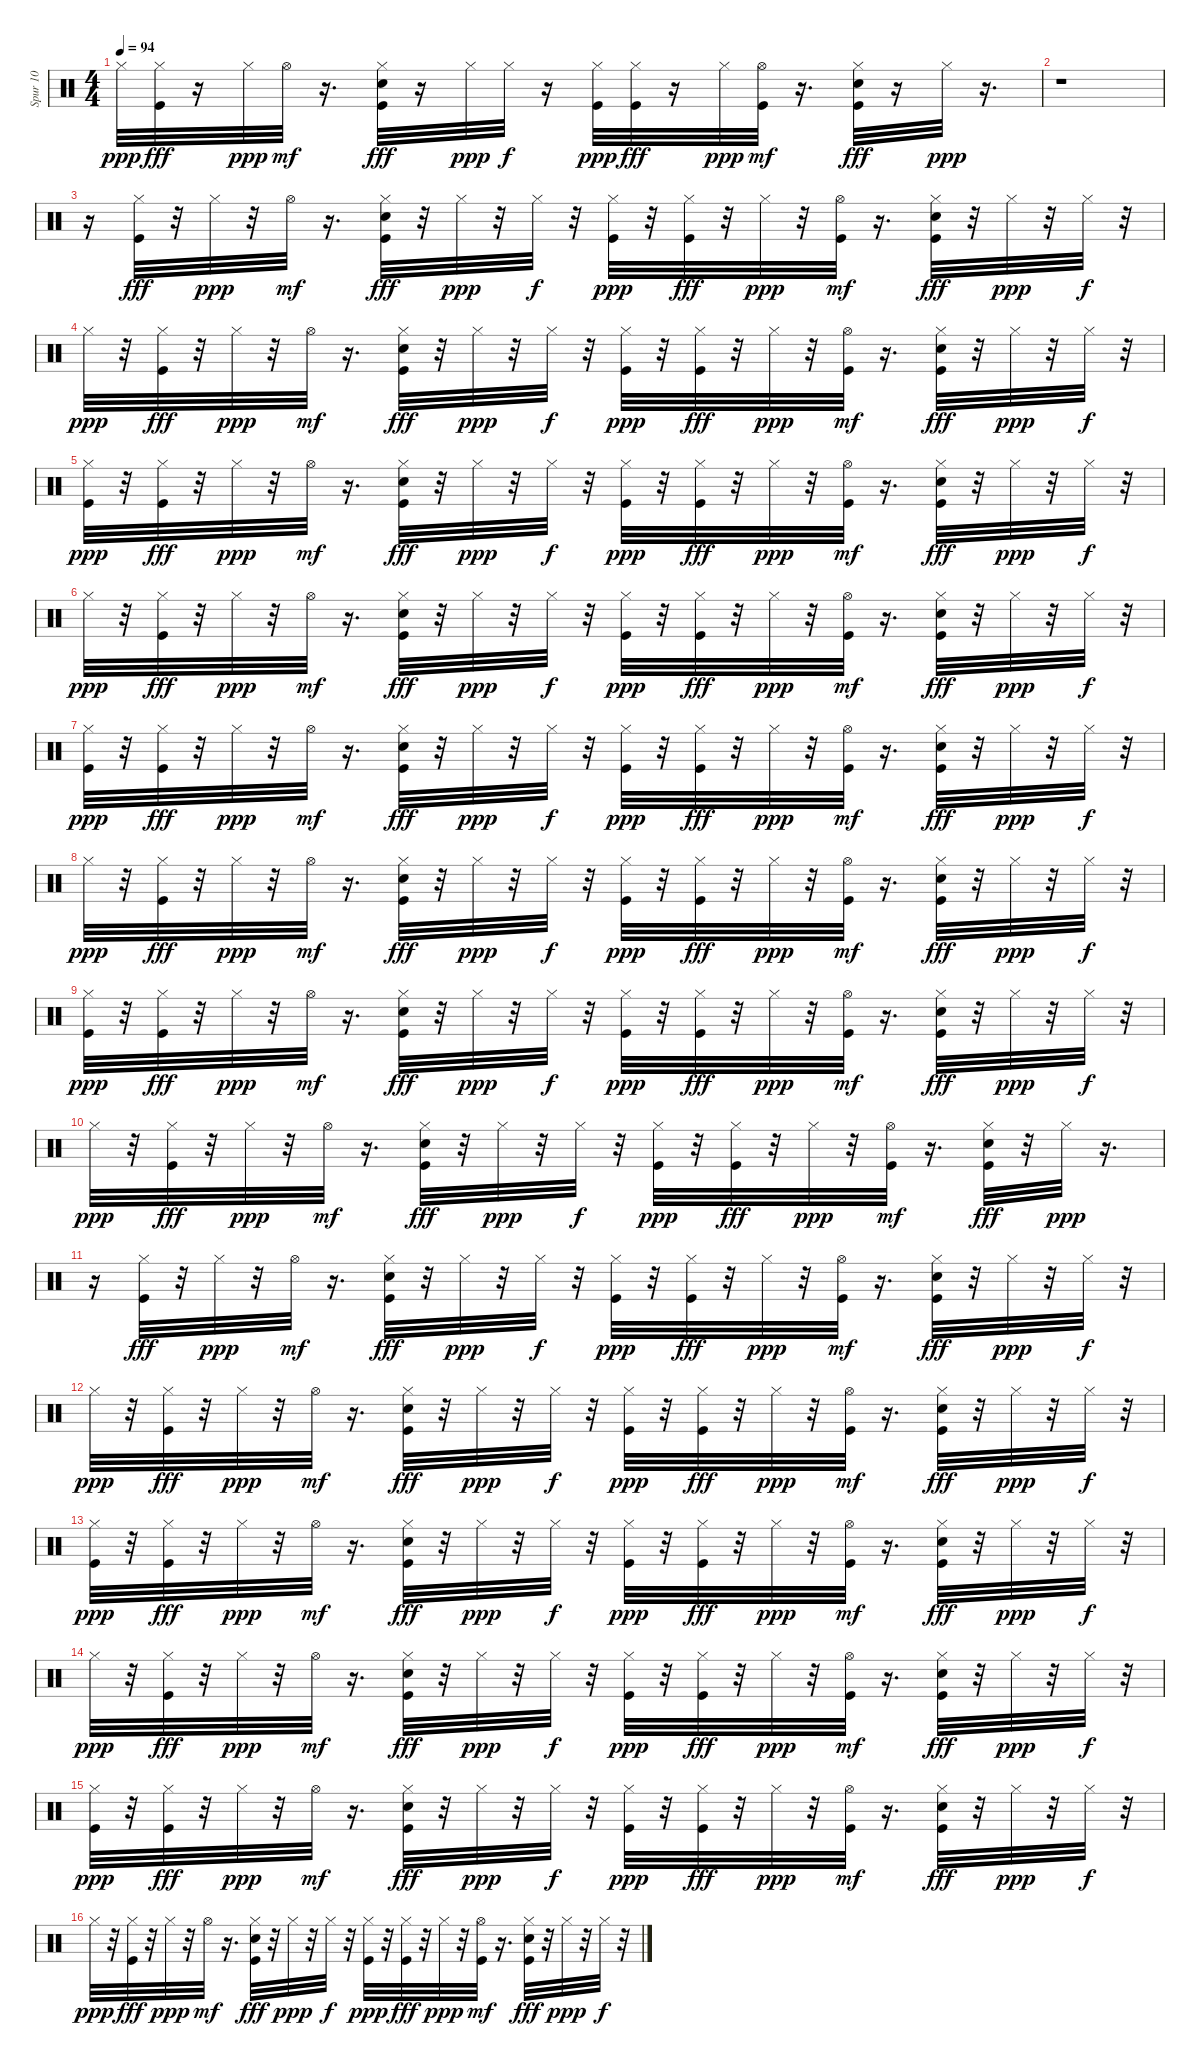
\track ("Spur 10" "Spur 10") {instrument percussion}
\staff {score}
\articulation defaults
\ts (4 4)
\tempo 94
\clef neutral
\ks c "Hi-Hat (closed)".32{dy ppp}
("Kick (hit)" "Hi-Hat (closed)").32{dy fff} r.16 "Hi-Hat (closed)".32{dy ppp} "Hi-Hat (open)".32{dy mf} r.16{d} ("Kick (hit)" "Electric Snare (hit)" "Hi-Hat (closed)").32{dy fff} r.16 "Hi-Hat (closed)".32{dy ppp} "Hi-Hat (closed)".32{dy f} r.16 ("Kick (hit)" "Hi-Hat (closed)").32{dy ppp} ("Kick (hit)" "Hi-Hat (closed)").32{dy fff} r.16 "Hi-Hat (closed)".32{dy ppp} ("Kick (hit)" "Hi-Hat (open)").32{dy mf} r.16{d} ("Kick (hit)" "Electric Snare (hit)" "Hi-Hat (closed)").32{dy fff} r.16 "Hi-Hat (closed)".32{dy ppp} r.16{d} |
r.1 |
r.16 ("Kick (hit)" "Hi-Hat (closed)").32{dy fff} r.32 "Hi-Hat (closed)".32{dy ppp} r.32 "Hi-Hat (open)".32{dy mf} r.16{d} ("Kick (hit)" "Electric Snare (hit)" "Hi-Hat (closed)").32{dy fff} r.32 "Hi-Hat (closed)".32{dy ppp} r.32 "Hi-Hat (closed)".32{dy f} r.32 ("Kick (hit)" "Hi-Hat (closed)").32{dy ppp} r.32 ("Kick (hit)" "Hi-Hat (closed)").32{dy fff} r.32 "Hi-Hat (closed)".32{dy ppp} r.32 ("Kick (hit)" "Hi-Hat (open)").32{dy mf} r.16{d} ("Kick (hit)" "Electric Snare (hit)" "Hi-Hat (closed)").32{dy fff} r.32 "Hi-Hat (closed)".32{dy ppp} r.32 "Hi-Hat (closed)".32{dy f} r.32 |
"Hi-Hat (closed)".32{dy ppp} r.32 ("Kick (hit)" "Hi-Hat (closed)").32{dy fff} r.32 "Hi-Hat (closed)".32{dy ppp} r.32 "Hi-Hat (open)".32{dy mf} r.16{d} ("Kick (hit)" "Electric Snare (hit)" "Hi-Hat (closed)").32{dy fff} r.32 "Hi-Hat (closed)".32{dy ppp} r.32 "Hi-Hat (closed)".32{dy f} r.32 ("Kick (hit)" "Hi-Hat (closed)").32{dy ppp} r.32 ("Kick (hit)" "Hi-Hat (closed)").32{dy fff} r.32 "Hi-Hat (closed)".32{dy ppp} r.32 ("Kick (hit)" "Hi-Hat (open)").32{dy mf} r.16{d} ("Kick (hit)" "Electric Snare (hit)" "Hi-Hat (closed)").32{dy fff} r.32 "Hi-Hat (closed)".32{dy ppp} r.32 "Hi-Hat (closed)".32{dy f} r.32 |
("Kick (hit)" "Hi-Hat (closed)").32{dy ppp} r.32 ("Kick (hit)" "Hi-Hat (closed)").32{dy fff} r.32 "Hi-Hat (closed)".32{dy ppp} r.32 "Hi-Hat (open)".32{dy mf} r.16{d} ("Kick (hit)" "Electric Snare (hit)" "Hi-Hat (closed)").32{dy fff} r.32 "Hi-Hat (closed)".32{dy ppp} r.32 "Hi-Hat (closed)".32{dy f} r.32 ("Kick (hit)" "Hi-Hat (closed)").32{dy ppp} r.32 ("Kick (hit)" "Hi-Hat (closed)").32{dy fff} r.32 "Hi-Hat (closed)".32{dy ppp} r.32 ("Kick (hit)" "Hi-Hat (open)").32{dy mf} r.16{d} ("Kick (hit)" "Electric Snare (hit)" "Hi-Hat (closed)").32{dy fff} r.32 "Hi-Hat (closed)".32{dy ppp} r.32 "Hi-Hat (closed)".32{dy f} r.32 |
"Hi-Hat (closed)".32{dy ppp} r.32 ("Kick (hit)" "Hi-Hat (closed)").32{dy fff} r.32 "Hi-Hat (closed)".32{dy ppp} r.32 "Hi-Hat (open)".32{dy mf} r.16{d} ("Kick (hit)" "Electric Snare (hit)" "Hi-Hat (closed)").32{dy fff} r.32 "Hi-Hat (closed)".32{dy ppp} r.32 "Hi-Hat (closed)".32{dy f} r.32 ("Kick (hit)" "Hi-Hat (closed)").32{dy ppp} r.32 ("Kick (hit)" "Hi-Hat (closed)").32{dy fff} r.32 "Hi-Hat (closed)".32{dy ppp} r.32 ("Kick (hit)" "Hi-Hat (open)").32{dy mf} r.16{d} ("Kick (hit)" "Electric Snare (hit)" "Hi-Hat (closed)").32{dy fff} r.32 "Hi-Hat (closed)".32{dy ppp} r.32 "Hi-Hat (closed)".32{dy f} r.32 |
("Kick (hit)" "Hi-Hat (closed)").32{dy ppp} r.32 ("Kick (hit)" "Hi-Hat (closed)").32{dy fff} r.32 "Hi-Hat (closed)".32{dy ppp} r.32 "Hi-Hat (open)".32{dy mf} r.16{d} ("Kick (hit)" "Electric Snare (hit)" "Hi-Hat (closed)").32{dy fff} r.32 "Hi-Hat (closed)".32{dy ppp} r.32 "Hi-Hat (closed)".32{dy f} r.32 ("Kick (hit)" "Hi-Hat (closed)").32{dy ppp} r.32 ("Kick (hit)" "Hi-Hat (closed)").32{dy fff} r.32 "Hi-Hat (closed)".32{dy ppp} r.32 ("Kick (hit)" "Hi-Hat (open)").32{dy mf} r.16{d} ("Kick (hit)" "Electric Snare (hit)" "Hi-Hat (closed)").32{dy fff} r.32 "Hi-Hat (closed)".32{dy ppp} r.32 "Hi-Hat (closed)".32{dy f} r.32 |
"Hi-Hat (closed)".32{dy ppp} r.32 ("Kick (hit)" "Hi-Hat (closed)").32{dy fff} r.32 "Hi-Hat (closed)".32{dy ppp} r.32 "Hi-Hat (open)".32{dy mf} r.16{d} ("Kick (hit)" "Electric Snare (hit)" "Hi-Hat (closed)").32{dy fff} r.32 "Hi-Hat (closed)".32{dy ppp} r.32 "Hi-Hat (closed)".32{dy f} r.32 ("Kick (hit)" "Hi-Hat (closed)").32{dy ppp} r.32 ("Kick (hit)" "Hi-Hat (closed)").32{dy fff} r.32 "Hi-Hat (closed)".32{dy ppp} r.32 ("Kick (hit)" "Hi-Hat (open)").32{dy mf} r.16{d} ("Kick (hit)" "Electric Snare (hit)" "Hi-Hat (closed)").32{dy fff} r.32 "Hi-Hat (closed)".32{dy ppp} r.32 "Hi-Hat (closed)".32{dy f} r.32 |
("Kick (hit)" "Hi-Hat (closed)").32{dy ppp} r.32 ("Kick (hit)" "Hi-Hat (closed)").32{dy fff} r.32 "Hi-Hat (closed)".32{dy ppp} r.32 "Hi-Hat (open)".32{dy mf} r.16{d} ("Kick (hit)" "Electric Snare (hit)" "Hi-Hat (closed)").32{dy fff} r.32 "Hi-Hat (closed)".32{dy ppp} r.32 "Hi-Hat (closed)".32{dy f} r.32 ("Kick (hit)" "Hi-Hat (closed)").32{dy ppp} r.32 ("Kick (hit)" "Hi-Hat (closed)").32{dy fff} r.32 "Hi-Hat (closed)".32{dy ppp} r.32 ("Kick (hit)" "Hi-Hat (open)").32{dy mf} r.16{d} ("Kick (hit)" "Electric Snare (hit)" "Hi-Hat (closed)").32{dy fff} r.32 "Hi-Hat (closed)".32{dy ppp} r.32 "Hi-Hat (closed)".32{dy f} r.32 |
"Hi-Hat (closed)".32{dy ppp} r.32 ("Kick (hit)" "Hi-Hat (closed)").32{dy fff} r.32 "Hi-Hat (closed)".32{dy ppp} r.32 "Hi-Hat (open)".32{dy mf} r.16{d} ("Kick (hit)" "Electric Snare (hit)" "Hi-Hat (closed)").32{dy fff} r.32 "Hi-Hat (closed)".32{dy ppp} r.32 "Hi-Hat (closed)".32{dy f} r.32 ("Kick (hit)" "Hi-Hat (closed)").32{dy ppp} r.32 ("Kick (hit)" "Hi-Hat (closed)").32{dy fff} r.32 "Hi-Hat (closed)".32{dy ppp} r.32 ("Kick (hit)" "Hi-Hat (open)").32{dy mf} r.16{d} ("Kick (hit)" "Electric Snare (hit)" "Hi-Hat (closed)").32{dy fff} r.32 "Hi-Hat (closed)".32{dy ppp} r.16{d} |
r.16 ("Kick (hit)" "Hi-Hat (closed)").32{dy fff} r.32 "Hi-Hat (closed)".32{dy ppp} r.32 "Hi-Hat (open)".32{dy mf} r.16{d} ("Kick (hit)" "Electric Snare (hit)" "Hi-Hat (closed)").32{dy fff} r.32 "Hi-Hat (closed)".32{dy ppp} r.32 "Hi-Hat (closed)".32{dy f} r.32 ("Kick (hit)" "Hi-Hat (closed)").32{dy ppp} r.32 ("Kick (hit)" "Hi-Hat (closed)").32{dy fff} r.32 "Hi-Hat (closed)".32{dy ppp} r.32 ("Kick (hit)" "Hi-Hat (open)").32{dy mf} r.16{d} ("Kick (hit)" "Electric Snare (hit)" "Hi-Hat (closed)").32{dy fff} r.32 "Hi-Hat (closed)".32{dy ppp} r.32 "Hi-Hat (closed)".32{dy f} r.32 |
"Hi-Hat (closed)".32{dy ppp} r.32 ("Kick (hit)" "Hi-Hat (closed)").32{dy fff} r.32 "Hi-Hat (closed)".32{dy ppp} r.32 "Hi-Hat (open)".32{dy mf} r.16{d} ("Kick (hit)" "Electric Snare (hit)" "Hi-Hat (closed)").32{dy fff} r.32 "Hi-Hat (closed)".32{dy ppp} r.32 "Hi-Hat (closed)".32{dy f} r.32 ("Kick (hit)" "Hi-Hat (closed)").32{dy ppp} r.32 ("Kick (hit)" "Hi-Hat (closed)").32{dy fff} r.32 "Hi-Hat (closed)".32{dy ppp} r.32 ("Kick (hit)" "Hi-Hat (open)").32{dy mf} r.16{d} ("Kick (hit)" "Electric Snare (hit)" "Hi-Hat (closed)").32{dy fff} r.32 "Hi-Hat (closed)".32{dy ppp} r.32 "Hi-Hat (closed)".32{dy f} r.32 |
("Kick (hit)" "Hi-Hat (closed)").32{dy ppp} r.32 ("Kick (hit)" "Hi-Hat (closed)").32{dy fff} r.32 "Hi-Hat (closed)".32{dy ppp} r.32 "Hi-Hat (open)".32{dy mf} r.16{d} ("Kick (hit)" "Electric Snare (hit)" "Hi-Hat (closed)").32{dy fff} r.32 "Hi-Hat (closed)".32{dy ppp} r.32 "Hi-Hat (closed)".32{dy f} r.32 ("Kick (hit)" "Hi-Hat (closed)").32{dy ppp} r.32 ("Kick (hit)" "Hi-Hat (closed)").32{dy fff} r.32 "Hi-Hat (closed)".32{dy ppp} r.32 ("Kick (hit)" "Hi-Hat (open)").32{dy mf} r.16{d} ("Kick (hit)" "Electric Snare (hit)" "Hi-Hat (closed)").32{dy fff} r.32 "Hi-Hat (closed)".32{dy ppp} r.32 "Hi-Hat (closed)".32{dy f} r.32 |
"Hi-Hat (closed)".32{dy ppp} r.32 ("Kick (hit)" "Hi-Hat (closed)").32{dy fff} r.32 "Hi-Hat (closed)".32{dy ppp} r.32 "Hi-Hat (open)".32{dy mf} r.16{d} ("Kick (hit)" "Electric Snare (hit)" "Hi-Hat (closed)").32{dy fff} r.32 "Hi-Hat (closed)".32{dy ppp} r.32 "Hi-Hat (closed)".32{dy f} r.32 ("Kick (hit)" "Hi-Hat (closed)").32{dy ppp} r.32 ("Kick (hit)" "Hi-Hat (closed)").32{dy fff} r.32 "Hi-Hat (closed)".32{dy ppp} r.32 ("Kick (hit)" "Hi-Hat (open)").32{dy mf} r.16{d} ("Kick (hit)" "Electric Snare (hit)" "Hi-Hat (closed)").32{dy fff} r.32 "Hi-Hat (closed)".32{dy ppp} r.32 "Hi-Hat (closed)".32{dy f} r.32 |
("Kick (hit)" "Hi-Hat (closed)").32{dy ppp} r.32 ("Kick (hit)" "Hi-Hat (closed)").32{dy fff} r.32 "Hi-Hat (closed)".32{dy ppp} r.32 "Hi-Hat (open)".32{dy mf} r.16{d} ("Kick (hit)" "Electric Snare (hit)" "Hi-Hat (closed)").32{dy fff} r.32 "Hi-Hat (closed)".32{dy ppp} r.32 "Hi-Hat (closed)".32{dy f} r.32 ("Kick (hit)" "Hi-Hat (closed)").32{dy ppp} r.32 ("Kick (hit)" "Hi-Hat (closed)").32{dy fff} r.32 "Hi-Hat (closed)".32{dy ppp} r.32 ("Kick (hit)" "Hi-Hat (open)").32{dy mf} r.16{d} ("Kick (hit)" "Electric Snare (hit)" "Hi-Hat (closed)").32{dy fff} r.32 "Hi-Hat (closed)".32{dy ppp} r.32 "Hi-Hat (closed)".32{dy f} r.32 |
"Hi-Hat (closed)".32{dy ppp} r.32 ("Kick (hit)" "Hi-Hat (closed)").32{dy fff} r.32 "Hi-Hat (closed)".32{dy ppp} r.32 "Hi-Hat (open)".32{dy mf} r.16{d} ("Kick (hit)" "Electric Snare (hit)" "Hi-Hat (closed)").32{dy fff} r.32 "Hi-Hat (closed)".32{dy ppp} r.32 "Hi-Hat (closed)".32{dy f} r.32 ("Kick (hit)" "Hi-Hat (closed)").32{dy ppp} r.32 ("Kick (hit)" "Hi-Hat (closed)").32{dy fff} r.32 "Hi-Hat (closed)".32{dy ppp} r.32 ("Kick (hit)" "Hi-Hat (open)").32{dy mf} r.16{d} ("Kick (hit)" "Electric Snare (hit)" "Hi-Hat (closed)").32{dy fff} r.32 "Hi-Hat (closed)".32{dy ppp} r.32 "Hi-Hat (closed)".32{dy f} r.32
